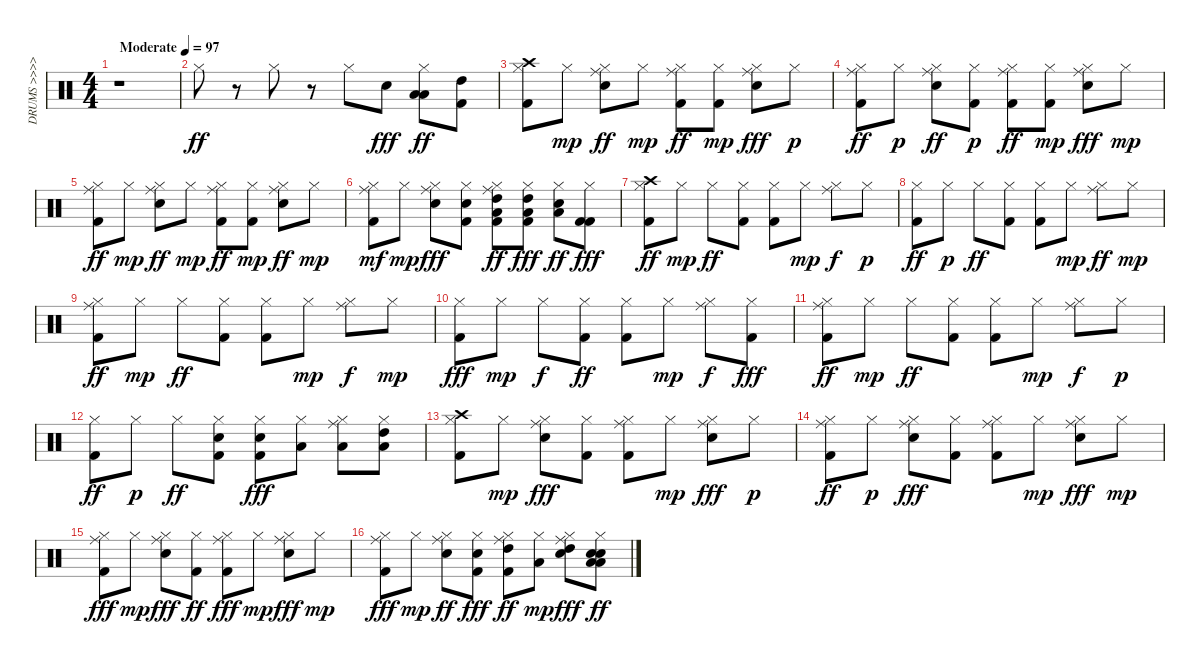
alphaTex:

\track ("DRUMS >>>>>>" "DRUMS >>>>") {instrument percussion}
\staff {score}
\articulation defaults
\ts (4 4)
\tempo (97 "Moderate")
\clef neutral
\ks c
r.1{dy ff} |
"Hi-Hat (closed)".8 r.8 "Hi-Hat (closed)".8 r.8 "Hi-Hat (closed)".8 "Snare (hit) 2".8{dy fff} ("Hi-Hat (closed)" "Low Tom (hit)" "Low Floor Tom (hit)").8{dy ff} ("High Tom (hit)" "Kick (hit) 2").8 |
("Hi-Hat (closed)" "Kick (hit) 2" "Crash high (hit)").8 "Hi-Hat (closed)".8{dy mp} ("Snare (hit) 2" "Hi-Hat (closed)" "Ride (middle)").8{dy ff} "Hi-Hat (closed)".8{dy mp} ("Kick (hit) 2" "Hi-Hat (closed)" "Ride (middle)").8{dy ff} ("Kick (hit) 2" "Hi-Hat (closed)").8{dy mp} ("Snare (hit) 2" "Hi-Hat (closed)" "Ride (middle)").8{dy fff} "Hi-Hat (closed)".8{dy p} |
("Kick (hit) 2" "Hi-Hat (closed)" "Ride (middle)").8{dy ff} "Hi-Hat (closed)".8{dy p} ("Snare (hit) 2" "Hi-Hat (closed)" "Ride (middle)").8{dy ff} ("Hi-Hat (closed)" "Kick (hit) 2").8{dy p} ("Kick (hit) 2" "Hi-Hat (closed)" "Ride (middle)").8{dy ff} ("Kick (hit) 2" "Hi-Hat (closed)").8{dy mp} ("Snare (hit) 2" "Hi-Hat (closed)" "Ride (middle)").8{dy fff} "Hi-Hat (closed)".8{dy mp} |
("Kick (hit) 2" "Hi-Hat (closed)" "Ride (middle)").8{dy ff} "Hi-Hat (closed)".8{dy mp} ("Snare (hit) 2" "Hi-Hat (closed)" "Ride (middle)").8{dy ff} "Hi-Hat (closed)".8{dy mp} ("Kick (hit) 2" "Hi-Hat (closed)" "Ride (middle)").8{dy ff} ("Kick (hit) 2" "Hi-Hat (closed)").8{dy mp} ("Snare (hit) 2" "Hi-Hat (closed)" "Ride (middle)").8{dy ff} "Hi-Hat (closed)".8{dy mp} |
("Kick (hit) 2" "Hi-Hat (closed)" "Ride (middle)").8{dy mf} "Hi-Hat (closed)".8{dy mp} ("Snare (hit) 2" "Hi-Hat (closed)" "Ride (middle)").8{dy fff} ("Hi-Hat (closed)" "Kick (hit) 2" "Snare (hit) 2").8 ("Kick (hit) 2" "Hi-Hat (closed)" "High Tom (hit)" "Ride (middle)" "Low Tom (hit)").8{dy ff} ("Kick (hit) 2" "Hi-Hat (closed)" "High Tom (hit)" "Low Floor Tom (hit)").8{dy fff} ("Snare (hit) 2" "Hi-Hat (closed)" "Low Tom (hit)").8{dy ff} ("Kick (hit) 2" "Hi-Hat (closed)" "Kick (hit) 2").8{dy fff} |
("Hi-Hat (closed)" "Kick (hit) 2" "Crash high (hit)").8{dy ff} "Hi-Hat (closed)".8{dy mp} "Hi-Hat (closed)".8{dy ff} ("Hi-Hat (closed)" "Kick (hit) 2").8 ("Hi-Hat (closed)" "Kick (hit) 2").8 "Hi-Hat (closed)".8{dy mp} ("Ride (middle)" "Hi-Hat (closed)").8{dy f} "Hi-Hat (closed)".8{dy p} |
("Hi-Hat (closed)" "Kick (hit) 2").8{dy ff} "Hi-Hat (closed)".8{dy p} "Hi-Hat (closed)".8{dy ff} ("Hi-Hat (closed)" "Kick (hit) 2").8 ("Hi-Hat (closed)" "Kick (hit) 2").8 "Hi-Hat (closed)".8{dy mp} ("Ride (middle)" "Hi-Hat (closed)").8{dy ff} "Hi-Hat (closed)".8{dy mp} |
("Hi-Hat (closed)" "Kick (hit) 2" "Ride (middle)").8{dy ff} "Hi-Hat (closed)".8{dy mp} "Hi-Hat (closed)".8{dy ff} ("Hi-Hat (closed)" "Kick (hit) 2").8 ("Hi-Hat (closed)" "Kick (hit) 2").8 "Hi-Hat (closed)".8{dy mp} ("Ride (middle)" "Hi-Hat (closed)").8{dy f} "Hi-Hat (closed)".8{dy mp} |
("Hi-Hat (closed)" "Kick (hit) 2").8{dy fff} "Hi-Hat (closed)".8{dy mp} "Hi-Hat (closed)".8{dy f} ("Hi-Hat (closed)" "Kick (hit) 2").8{dy ff} ("Hi-Hat (closed)" "Kick (hit) 2").8 "Hi-Hat (closed)".8{dy mp} ("Ride (middle)" "Hi-Hat (closed)").8{dy f} ("Hi-Hat (closed)" "Kick (hit) 2").8{dy fff} |
("Hi-Hat (closed)" "Kick (hit) 2" "Ride (middle)").8{dy ff} "Hi-Hat (closed)".8{dy mp} "Hi-Hat (closed)".8{dy ff} ("Hi-Hat (closed)" "Kick (hit) 2").8 ("Hi-Hat (closed)" "Kick (hit) 2").8 "Hi-Hat (closed)".8{dy mp} ("Ride (middle)" "Hi-Hat (closed)").8{dy f} "Hi-Hat (closed)".8{dy p} |
("Hi-Hat (closed)" "Kick (hit) 2").8{dy ff} "Hi-Hat (closed)".8{dy p} "Hi-Hat (closed)".8{dy ff} ("Hi-Hat (closed)" "Kick (hit) 2" "Snare (hit) 2").8 ("Hi-Hat (closed)" "Kick (hit) 2" "Snare (hit) 2").8{dy fff} ("Hi-Hat (closed)" "Low Tom (hit)").8 ("Ride (middle)" "Hi-Hat (closed)" "Low Floor Tom (hit)").8 ("Hi-Hat (closed)" "High Tom (hit)" "Low Tom (hit)").8 |
("Hi-Hat (closed)" "Crash high (hit)" "Kick (hit) 2").8 "Hi-Hat (closed)".8{dy mp} ("Hi-Hat (closed)" "Ride (middle)" "Snare (hit) 2").8{dy fff} ("Hi-Hat (closed)" "Kick (hit) 2").8 ("Hi-Hat (closed)" "Ride (middle)" "Kick (hit) 2").8 "Hi-Hat (closed)".8{dy mp} ("Hi-Hat (closed)" "Ride (middle)" "Snare (hit) 2").8{dy fff} "Hi-Hat (closed)".8{dy p} |
("Hi-Hat (closed)" "Ride (middle)" "Kick (hit) 2").8{dy ff} "Hi-Hat (closed)".8{dy p} ("Hi-Hat (closed)" "Ride (middle)" "Snare (hit) 2").8{dy fff} ("Hi-Hat (closed)" "Kick (hit) 2").8 ("Hi-Hat (closed)" "Ride (middle)" "Kick (hit) 2").8 "Hi-Hat (closed)".8{dy mp} ("Hi-Hat (closed)" "Ride (middle)" "Snare (hit) 2").8{dy fff} "Hi-Hat (closed)".8{dy mp} |
("Hi-Hat (closed)" "Ride (middle)" "Kick (hit) 2").8{dy fff} "Hi-Hat (closed)".8{dy mp} ("Hi-Hat (closed)" "Ride (middle)" "Snare (hit) 2").8{dy fff} ("Hi-Hat (closed)" "Kick (hit) 2").8{dy ff} ("Hi-Hat (closed)" "Ride (middle)" "Kick (hit) 2").8{dy fff} "Hi-Hat (closed)".8{dy mp} ("Hi-Hat (closed)" "Ride (middle)" "Snare (hit) 2").8{dy fff} "Hi-Hat (closed)".8{dy mp} |
("Hi-Hat (closed)" "Ride (middle)" "Kick (hit) 2").8{dy fff} "Hi-Hat (closed)".8{dy mp} ("Hi-Hat (closed)" "Ride (middle)" "Snare (hit) 2").8{dy ff} ("Hi-Hat (closed)" "Kick (hit) 2" "Snare (hit) 2").8{dy fff} ("Hi-Hat (closed)" "Ride (middle)" "Kick (hit) 2" "High Tom (hit)").8{dy ff} ("Low Tom (hit)" "Hi-Hat (closed)").8{dy mp} ("High Tom (hit)" "Hi-Hat (closed)" "Ride (middle)" "Snare (hit) 2").8{dy fff} ("Snare (hit) 2" "Low Tom (hit)" "Hi-Hat (closed)" "Snare (hit) 2" "Low Floor Tom (hit)").8{dy ff}
